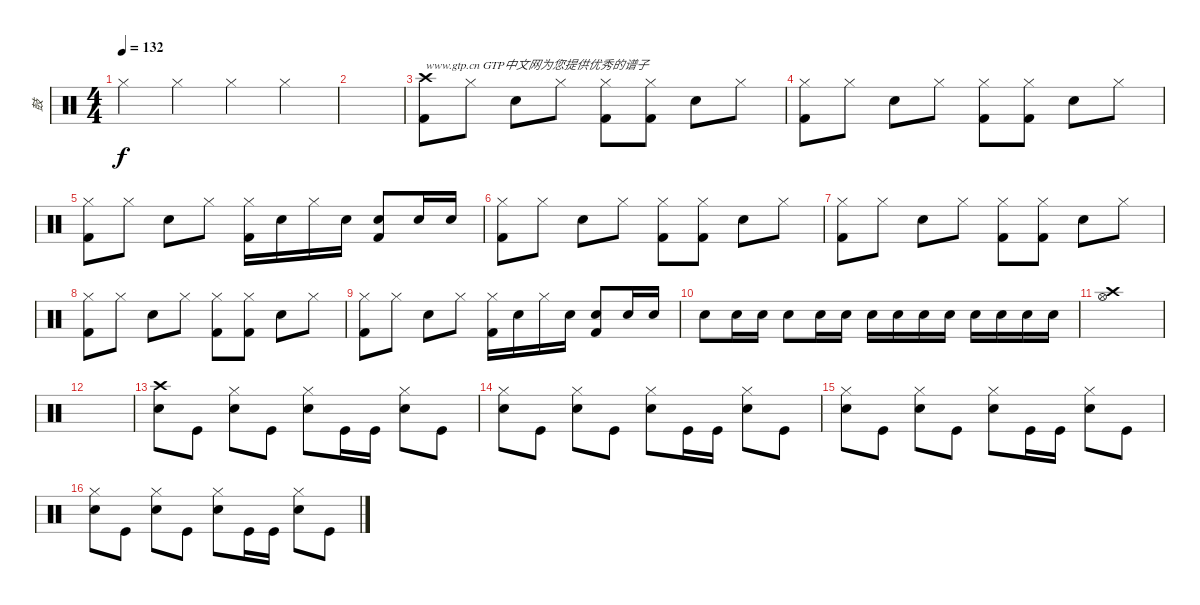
\track ("鼓" "鼓") {instrument percussion}
\staff {score}
\articulation defaults
\ts (4 4)
\tempo 132
\clef neutral
\ks c "Hi-Hat (closed)".4{dy f} "Hi-Hat (closed)".4 "Hi-Hat (closed)".4 "Hi-Hat (closed)".4
|
|
("Crash high (hit)" "Kick (hit) 2").8{txt "www.gtp.cn GTP中文网为您提供优秀的谱子"} "Hi-Hat (closed)".8 "Snare (hit) 2".8 "Hi-Hat (closed)".8 ("Hi-Hat (closed)" "Kick (hit) 2").8 ("Hi-Hat (closed)" "Kick (hit) 2").8 "Snare (hit) 2".8 "Hi-Hat (closed)".8 |
("Hi-Hat (closed)" "Kick (hit) 2").8 "Hi-Hat (closed)".8 "Snare (hit) 2".8 "Hi-Hat (closed)".8 ("Hi-Hat (closed)" "Kick (hit) 2").8 ("Hi-Hat (closed)" "Kick (hit) 2").8 "Snare (hit) 2".8 "Hi-Hat (closed)".8 |
("Hi-Hat (closed)" "Kick (hit) 2").8 "Hi-Hat (closed)".8 "Snare (hit) 2".8 "Hi-Hat (closed)".8 ("Hi-Hat (closed)" "Kick (hit) 2").16 "Snare (hit) 2".16 "Hi-Hat (closed)".16 "Snare (hit) 2".16 ("Snare (hit) 2" "Kick (hit) 2").8 "Snare (hit) 2".16 "Snare (hit) 2".16 |
("Hi-Hat (closed)" "Kick (hit) 2").8 "Hi-Hat (closed)".8 "Snare (hit) 2".8 "Hi-Hat (closed)".8 ("Hi-Hat (closed)" "Kick (hit) 2").8 ("Hi-Hat (closed)" "Kick (hit) 2").8 "Snare (hit) 2".8 "Hi-Hat (closed)".8 |
("Hi-Hat (closed)" "Kick (hit) 2").8 "Hi-Hat (closed)".8 "Snare (hit) 2".8 "Hi-Hat (closed)".8 ("Hi-Hat (closed)" "Kick (hit) 2").8 ("Hi-Hat (closed)" "Kick (hit) 2").8 "Snare (hit) 2".8 "Hi-Hat (closed)".8 |
("Hi-Hat (closed)" "Kick (hit) 2").8 "Hi-Hat (closed)".8 "Snare (hit) 2".8 "Hi-Hat (closed)".8 ("Hi-Hat (closed)" "Kick (hit) 2").8 ("Hi-Hat (closed)" "Kick (hit) 2").8 "Snare (hit) 2".8 "Hi-Hat (closed)".8 |
("Hi-Hat (closed)" "Kick (hit) 2").8 "Hi-Hat (closed)".8 "Snare (hit) 2".8 "Hi-Hat (closed)".8 ("Hi-Hat (closed)" "Kick (hit) 2").16 "Snare (hit) 2".16 "Hi-Hat (closed)".16 "Snare (hit) 2".16 ("Snare (hit) 2" "Kick (hit) 2").8 "Snare (hit) 2".16 "Snare (hit) 2".16 |
"Snare (hit) 2".8 "Snare (hit) 2".16 "Snare (hit) 2".16 "Snare (hit) 2".8 "Snare (hit) 2".16 "Snare (hit) 2".16 "Snare (hit) 2".16 "Snare (hit) 2".16 "Snare (hit) 2".16 "Snare (hit) 2".16 "Snare (hit) 2".16 "Snare (hit) 2".16 "Snare (hit) 2".16 "Snare (hit) 2".16 |
("Crash high (hit)" "Hi-Hat (open)").1 |
|
("Crash high (hit)" "Electric Snare (hit)").8 "Kick (hit)".8 ("Hi-Hat (closed)" "Electric Snare (hit)").8 "Kick (hit)".8 ("Hi-Hat (closed)" "Electric Snare (hit)").8 "Kick (hit)".16 "Kick (hit)".16 ("Hi-Hat (closed)" "Electric Snare (hit)").8 "Kick (hit)".8 |
("Hi-Hat (closed)" "Electric Snare (hit)").8 "Kick (hit)".8 ("Hi-Hat (closed)" "Electric Snare (hit)").8 "Kick (hit)".8 ("Hi-Hat (closed)" "Electric Snare (hit)").8 "Kick (hit)".16 "Kick (hit)".16 ("Hi-Hat (closed)" "Electric Snare (hit)").8 "Kick (hit)".8 |
("Hi-Hat (closed)" "Electric Snare (hit)").8 "Kick (hit)".8 ("Hi-Hat (closed)" "Electric Snare (hit)").8 "Kick (hit)".8 ("Hi-Hat (closed)" "Electric Snare (hit)").8 "Kick (hit)".16 "Kick (hit)".16 ("Hi-Hat (closed)" "Electric Snare (hit)").8 "Kick (hit)".8 |
("Hi-Hat (closed)" "Electric Snare (hit)").8 "Kick (hit)".8 ("Hi-Hat (closed)" "Electric Snare (hit)").8 "Kick (hit)".8 ("Hi-Hat (closed)" "Electric Snare (hit)").8 "Kick (hit)".16 "Kick (hit)".16 ("Hi-Hat (closed)" "Electric Snare (hit)").8 "Kick (hit)".8
